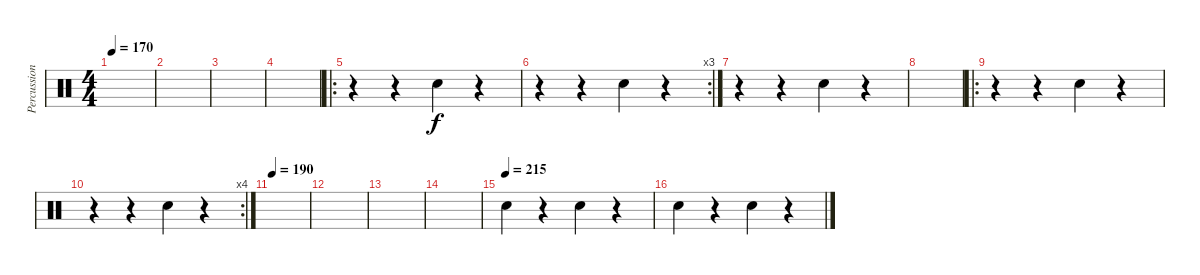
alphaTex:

\track ("Percussion" "Percussion") {instrument percussion}
\staff {score}
\articulation defaults
\ts (4 4)
\tempo 170
\clef neutral
\ks c
|
|
|
|
\ro
r.4 r.4 "Snare (hit) 2".4 r.4 |
\rc 3
r.4 r.4 "Snare (hit) 2".4 r.4 |
r.4 r.4 "Snare (hit) 2".4 r.4 |
|
\ro
r.4 r.4 "Snare (hit) 2".4 r.4 |
\rc 4
r.4 r.4 "Snare (hit) 2".4 r.4 |
\tempo 190
|
|
|
|
\tempo (215)
"Snare (hit) 2".4 r.4 "Snare (hit) 2".4 r.4 |
"Snare (hit) 2".4 r.4 "Snare (hit) 2".4 r.4
